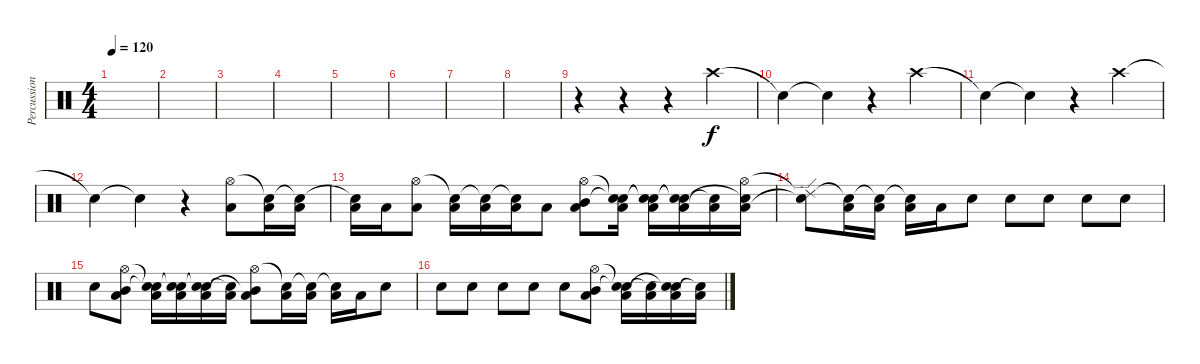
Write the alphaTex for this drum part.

\track ("Percussion" "Percussion") {instrument percussion}
\staff {score}
\articulation defaults
\ts (4 4)
\tempo 120
\clef neutral
\ks c
|
|
|
|
|
|
|
|
r.4 r.4 r.4 "Crash high (hit)".4 |
"Snare (hit)"{t}.4 "Snare (hit)"{t}.4 r.4 "Crash high (hit)".4 |
"Snare (hit)"{t}.4 "Snare (hit)"{t}.4 r.4 "Crash high (hit)".4 |
"Snare (hit)"{t}.4 "Snare (hit)"{t}.4 r.4 ("Hi-Hat (open)" "Low Tom (hit)").8 ("Snare (hit)"{t} "Low Tom (hit)").16 ("Snare (hit)"{t} "Low Tom (hit)").16 |
("Snare (hit)"{t} "Low Tom (hit)").16 "Low Tom (hit)".16 ("Hi-Hat (open)" "Low Tom (hit)").8 ("Snare (hit)"{t} "Low Tom (hit)").16 ("Snare (hit)"{t} "Low Tom (hit)").16 ("Snare (hit)"{t} "Low Tom (hit)").16 "Low Tom (hit)".8 ("Hi-Hat (open)" "Low Tom (hit)" "Mid Tom (hit)").8 ("Snare (hit)"{t} "Low Tom (hit)" "Snare (hit)"{t}).16 ("Snare (hit)"{t} "Low Tom (hit)" "Snare (hit)"{t}).16 ("Snare (hit)"{t} "Low Tom (hit)" "Snare (hit)"{t}).16 ("Low Tom (hit)" "Snare (hit)"{t}).16 ("Hi-Hat (open)" "Low Tom (hit)" "Snare (hit)"{t}).16 |
("Ride (edge) 2"{t} "Snare (hit)"{t}).8 ("Snare (hit)"{t} "Low Tom (hit)").16 ("Snare (hit)"{t} "Low Tom (hit)").16 ("Snare (hit)"{t} "Low Tom (hit)").16 "Low Tom (hit)".16 "Electric Snare (hit)".8 "Electric Snare (hit)".8 "Electric Snare (hit)".8 "Electric Snare (hit)".8 "Electric Snare (hit)".8 |
"Electric Snare (hit)".8 ("Hi-Hat (open)" "Low Tom (hit)" "Mid Tom (hit)").8 ("Snare (hit)"{t} "Low Tom (hit)" "Snare (hit)"{t}).16 ("Snare (hit)"{t} "Low Tom (hit)" "Snare (hit)"{t}).16 ("Snare (hit)"{t} "Low Tom (hit)" "Snare (hit)"{t}).16 ("Low Tom (hit)" "Snare (hit)"{t}).16 ("Hi-Hat (open)" "Low Tom (hit)" "Mid Tom (hit)"{t}).8 ("Snare (hit)"{t} "Low Tom (hit)").16 ("Snare (hit)"{t} "Low Tom (hit)").16 ("Snare (hit)"{t} "Low Tom (hit)").16 "Low Tom (hit)".16 "Electric Snare (hit)".8 |
"Electric Snare (hit)".8 "Electric Snare (hit)".8 "Electric Snare (hit)".8 "Electric Snare (hit)".8 "Electric Snare (hit)".8 ("Hi-Hat (open)" "Low Tom (hit)" "Mid Tom (hit)").8 ("Snare (hit)"{t} "Low Tom (hit)" "Snare (hit)"{t}).16 ("Low Tom (hit)" "Snare (hit)"{t}).16 ("Snare (hit)"{t} "Low Tom (hit)" "Snare (hit)"{t}).16 ("Low Tom (hit)" "Snare (hit)"{t}).16
